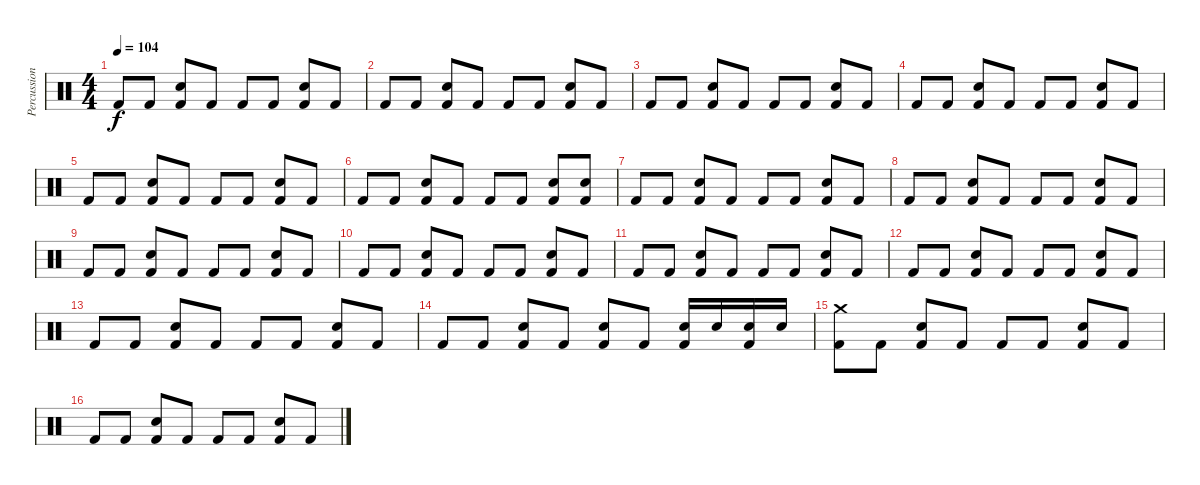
\track ("Percussions" "Percussion") {instrument percussion}
\staff {score}
\articulation defaults
\ts (4 4)
\tempo 104
\clef neutral
\ks c "Kick (hit) 2".8{dy f} "Kick (hit) 2".8
("Snare (hit) 2" "Kick (hit) 2").8 "Kick (hit) 2".8 "Kick (hit) 2".8 "Kick (hit) 2".8 ("Snare (hit) 2" "Kick (hit) 2").8 "Kick (hit) 2".8 |
"Kick (hit) 2".8 "Kick (hit) 2".8 ("Snare (hit) 2" "Kick (hit) 2").8 "Kick (hit) 2".8 "Kick (hit) 2".8 "Kick (hit) 2".8 ("Snare (hit) 2" "Kick (hit) 2").8 "Kick (hit) 2".8 |
"Kick (hit) 2".8 "Kick (hit) 2".8 ("Snare (hit) 2" "Kick (hit) 2").8 "Kick (hit) 2".8 "Kick (hit) 2".8 "Kick (hit) 2".8 ("Snare (hit) 2" "Kick (hit) 2").8 "Kick (hit) 2".8 |
"Kick (hit) 2".8 "Kick (hit) 2".8 ("Snare (hit) 2" "Kick (hit) 2").8 "Kick (hit) 2".8 "Kick (hit) 2".8 "Kick (hit) 2".8 ("Snare (hit) 2" "Kick (hit) 2").8 "Kick (hit) 2".8 |
"Kick (hit) 2".8 "Kick (hit) 2".8 ("Snare (hit) 2" "Kick (hit) 2").8 "Kick (hit) 2".8 "Kick (hit) 2".8 "Kick (hit) 2".8 ("Snare (hit) 2" "Kick (hit) 2").8 "Kick (hit) 2".8 |
"Kick (hit) 2".8 "Kick (hit) 2".8 ("Snare (hit) 2" "Kick (hit) 2").8 "Kick (hit) 2".8 "Kick (hit) 2".8 "Kick (hit) 2".8 ("Snare (hit) 2" "Kick (hit) 2").8 ("Snare (hit) 2" "Kick (hit) 2").8 |
"Kick (hit) 2".8 "Kick (hit) 2".8 ("Snare (hit) 2" "Kick (hit) 2").8 "Kick (hit) 2".8 "Kick (hit) 2".8 "Kick (hit) 2".8 ("Snare (hit) 2" "Kick (hit) 2").8 "Kick (hit) 2".8 |
"Kick (hit) 2".8 "Kick (hit) 2".8 ("Snare (hit) 2" "Kick (hit) 2").8 "Kick (hit) 2".8 "Kick (hit) 2".8 "Kick (hit) 2".8 ("Snare (hit) 2" "Kick (hit) 2").8 "Kick (hit) 2".8 |
"Kick (hit) 2".8 "Kick (hit) 2".8 ("Snare (hit) 2" "Kick (hit) 2").8 "Kick (hit) 2".8 "Kick (hit) 2".8 "Kick (hit) 2".8 ("Snare (hit) 2" "Kick (hit) 2").8 "Kick (hit) 2".8 |
"Kick (hit) 2".8 "Kick (hit) 2".8 ("Snare (hit) 2" "Kick (hit) 2").8 "Kick (hit) 2".8 "Kick (hit) 2".8 "Kick (hit) 2".8 ("Snare (hit) 2" "Kick (hit) 2").8 "Kick (hit) 2".8 |
"Kick (hit) 2".8 "Kick (hit) 2".8 ("Snare (hit) 2" "Kick (hit) 2").8 "Kick (hit) 2".8 "Kick (hit) 2".8 "Kick (hit) 2".8 ("Snare (hit) 2" "Kick (hit) 2").8 "Kick (hit) 2".8 |
"Kick (hit) 2".8 "Kick (hit) 2".8 ("Snare (hit) 2" "Kick (hit) 2").8 "Kick (hit) 2".8 "Kick (hit) 2".8 "Kick (hit) 2".8 ("Snare (hit) 2" "Kick (hit) 2").8 "Kick (hit) 2".8 |
"Kick (hit) 2".8 "Kick (hit) 2".8 ("Snare (hit) 2" "Kick (hit) 2").8 "Kick (hit) 2".8 "Kick (hit) 2".8 "Kick (hit) 2".8 ("Snare (hit) 2" "Kick (hit) 2").8 "Kick (hit) 2".8 |
"Kick (hit) 2".8 "Kick (hit) 2".8 ("Snare (hit) 2" "Kick (hit) 2").8 "Kick (hit) 2".8 ("Snare (hit) 2" "Kick (hit) 2").8 "Kick (hit) 2".8 ("Snare (hit) 2" "Kick (hit) 2").16 "Snare (hit) 2".16 ("Snare (hit) 2" "Kick (hit) 2").16 "Snare (hit) 2".16 |
("Crash medium (hit)" "Kick (hit) 2").8 "Kick (hit) 2".8 ("Snare (hit) 2" "Kick (hit) 2").8 "Kick (hit) 2".8 "Kick (hit) 2".8 "Kick (hit) 2".8 ("Snare (hit) 2" "Kick (hit) 2").8 "Kick (hit) 2".8 |
"Kick (hit) 2".8 "Kick (hit) 2".8 ("Snare (hit) 2" "Kick (hit) 2").8 "Kick (hit) 2".8 "Kick (hit) 2".8 "Kick (hit) 2".8 ("Snare (hit) 2" "Kick (hit) 2").8 "Kick (hit) 2".8
